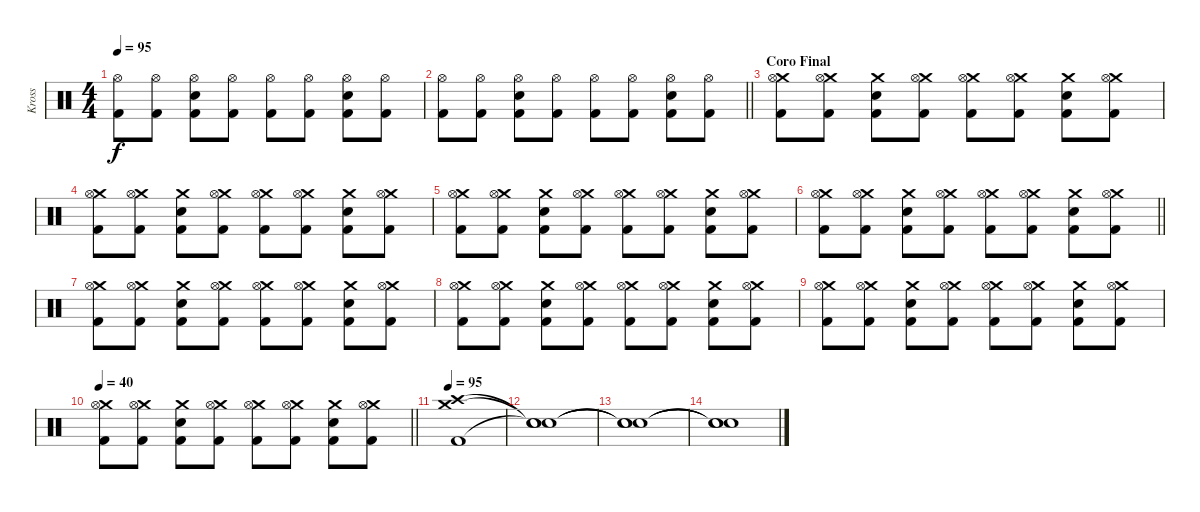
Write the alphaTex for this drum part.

\track ("Kross" "Kross") {instrument percussion}
\staff {score}
\articulation defaults
\ts (4 4)
\tempo 95
\clef neutral
\ks c
("Hi-Hat (open)" "Kick (hit) 2").8{dy f} ("Hi-Hat (open)" "Kick (hit) 2").8 ("Hi-Hat (open)" "Electric Snare (hit)" "Kick (hit) 2").8 ("Hi-Hat (open)" "Kick (hit) 2").8 ("Hi-Hat (open)" "Kick (hit) 2").8 ("Hi-Hat (open)" "Kick (hit) 2").8 ("Hi-Hat (open)" "Electric Snare (hit)" "Kick (hit) 2").8 ("Hi-Hat (open)" "Kick (hit) 2").8 |
\barLineRight lightlight
("Hi-Hat (open)" "Kick (hit) 2").8 ("Hi-Hat (open)" "Kick (hit) 2").8 ("Hi-Hat (open)" "Electric Snare (hit)" "Kick (hit) 2").8 ("Hi-Hat (open)" "Kick (hit) 2").8 ("Hi-Hat (open)" "Kick (hit) 2").8 ("Hi-Hat (open)" "Kick (hit) 2").8 ("Hi-Hat (open)" "Electric Snare (hit)" "Kick (hit) 2").8 ("Hi-Hat (open)" "Kick (hit) 2").8 |
\section ("" "Coro Final")
("Crash medium (hit)" "Hi-Hat (open)" "Kick (hit) 2").8 ("Crash medium (hit)" "Hi-Hat (open)" "Kick (hit) 2").8 ("Crash medium (hit)" "Electric Snare (hit)" "Kick (hit) 2").8 ("Crash medium (hit)" "Hi-Hat (open)" "Kick (hit) 2").8 ("Crash medium (hit)" "Hi-Hat (open)" "Kick (hit) 2").8 ("Crash medium (hit)" "Hi-Hat (open)" "Kick (hit) 2").8 ("Crash medium (hit)" "Electric Snare (hit)" "Kick (hit) 2").8 ("Crash medium (hit)" "Hi-Hat (open)" "Kick (hit) 2").8 |
("Crash medium (hit)" "Hi-Hat (open)" "Kick (hit) 2").8 ("Crash medium (hit)" "Hi-Hat (open)" "Kick (hit) 2").8 ("Crash medium (hit)" "Electric Snare (hit)" "Kick (hit) 2").8 ("Crash medium (hit)" "Hi-Hat (open)" "Kick (hit) 2").8 ("Crash medium (hit)" "Hi-Hat (open)" "Kick (hit) 2").8 ("Crash medium (hit)" "Hi-Hat (open)" "Kick (hit) 2").8 ("Crash medium (hit)" "Electric Snare (hit)" "Kick (hit) 2").8 ("Crash medium (hit)" "Hi-Hat (open)" "Kick (hit) 2").8 |
("Crash medium (hit)" "Hi-Hat (open)" "Kick (hit) 2").8 ("Crash medium (hit)" "Hi-Hat (open)" "Kick (hit) 2").8 ("Crash medium (hit)" "Electric Snare (hit)" "Kick (hit) 2").8 ("Crash medium (hit)" "Hi-Hat (open)" "Kick (hit) 2").8 ("Crash medium (hit)" "Hi-Hat (open)" "Kick (hit) 2").8 ("Crash medium (hit)" "Hi-Hat (open)" "Kick (hit) 2").8 ("Crash medium (hit)" "Electric Snare (hit)" "Kick (hit) 2").8 ("Crash medium (hit)" "Hi-Hat (open)" "Kick (hit) 2").8 |
\barLineRight lightlight
("Crash medium (hit)" "Hi-Hat (open)" "Kick (hit) 2").8 ("Crash medium (hit)" "Hi-Hat (open)" "Kick (hit) 2").8 ("Crash medium (hit)" "Electric Snare (hit)" "Kick (hit) 2").8 ("Crash medium (hit)" "Hi-Hat (open)" "Kick (hit) 2").8 ("Crash medium (hit)" "Hi-Hat (open)" "Kick (hit) 2").8 ("Crash medium (hit)" "Hi-Hat (open)" "Kick (hit) 2").8 ("Crash medium (hit)" "Electric Snare (hit)" "Kick (hit) 2").8 ("Crash medium (hit)" "Hi-Hat (open)" "Kick (hit) 2").8 |
("Crash medium (hit)" "Hi-Hat (open)" "Kick (hit) 2").8 ("Crash medium (hit)" "Hi-Hat (open)" "Kick (hit) 2").8 ("Crash medium (hit)" "Electric Snare (hit)" "Kick (hit) 2").8 ("Crash medium (hit)" "Hi-Hat (open)" "Kick (hit) 2").8 ("Crash medium (hit)" "Hi-Hat (open)" "Kick (hit) 2").8 ("Crash medium (hit)" "Hi-Hat (open)" "Kick (hit) 2").8 ("Crash medium (hit)" "Electric Snare (hit)" "Kick (hit) 2").8 ("Crash medium (hit)" "Hi-Hat (open)" "Kick (hit) 2").8 |
("Crash medium (hit)" "Hi-Hat (open)" "Kick (hit) 2").8 ("Crash medium (hit)" "Hi-Hat (open)" "Kick (hit) 2").8 ("Crash medium (hit)" "Electric Snare (hit)" "Kick (hit) 2").8 ("Crash medium (hit)" "Hi-Hat (open)" "Kick (hit) 2").8 ("Crash medium (hit)" "Hi-Hat (open)" "Kick (hit) 2").8 ("Crash medium (hit)" "Hi-Hat (open)" "Kick (hit) 2").8 ("Crash medium (hit)" "Electric Snare (hit)" "Kick (hit) 2").8 ("Crash medium (hit)" "Hi-Hat (open)" "Kick (hit) 2").8 |
("Crash medium (hit)" "Hi-Hat (open)" "Kick (hit) 2").8 ("Crash medium (hit)" "Hi-Hat (open)" "Kick (hit) 2").8 ("Crash medium (hit)" "Electric Snare (hit)" "Kick (hit) 2").8 ("Crash medium (hit)" "Hi-Hat (open)" "Kick (hit) 2").8 ("Crash medium (hit)" "Hi-Hat (open)" "Kick (hit) 2").8 ("Crash medium (hit)" "Hi-Hat (open)" "Kick (hit) 2").8 ("Crash medium (hit)" "Electric Snare (hit)" "Kick (hit) 2").8 ("Crash medium (hit)" "Hi-Hat (open)" "Kick (hit) 2").8 |
\tempo 40
\barLineRight lightlight
("Crash medium (hit)" "Hi-Hat (open)" "Kick (hit) 2").8 ("Crash medium (hit)" "Hi-Hat (open)" "Kick (hit) 2").8 ("Crash medium (hit)" "Electric Snare (hit)" "Kick (hit) 2").8 ("Crash medium (hit)" "Hi-Hat (open)" "Kick (hit) 2").8 ("Crash medium (hit)" "Hi-Hat (open)" "Kick (hit) 2").8 ("Crash medium (hit)" "Hi-Hat (open)" "Kick (hit) 2").8 ("Crash medium (hit)" "Electric Snare (hit)" "Kick (hit) 2").8 ("Crash medium (hit)" "Hi-Hat (open)" "Kick (hit) 2").8 |
\tempo 95
("Crash medium (hit)" "Crash high (hit)" "Kick (hit) 2").1 |
("Snare (hit)"{t} "Snare (hit)"{t} "Snare (hit)"{t}).1 |
("Snare (hit)"{t} "Snare (hit)"{t} "Snare (hit)"{t}).1 |
("Snare (hit)"{t} "Snare (hit)"{t} "Snare (hit)"{t}).1
